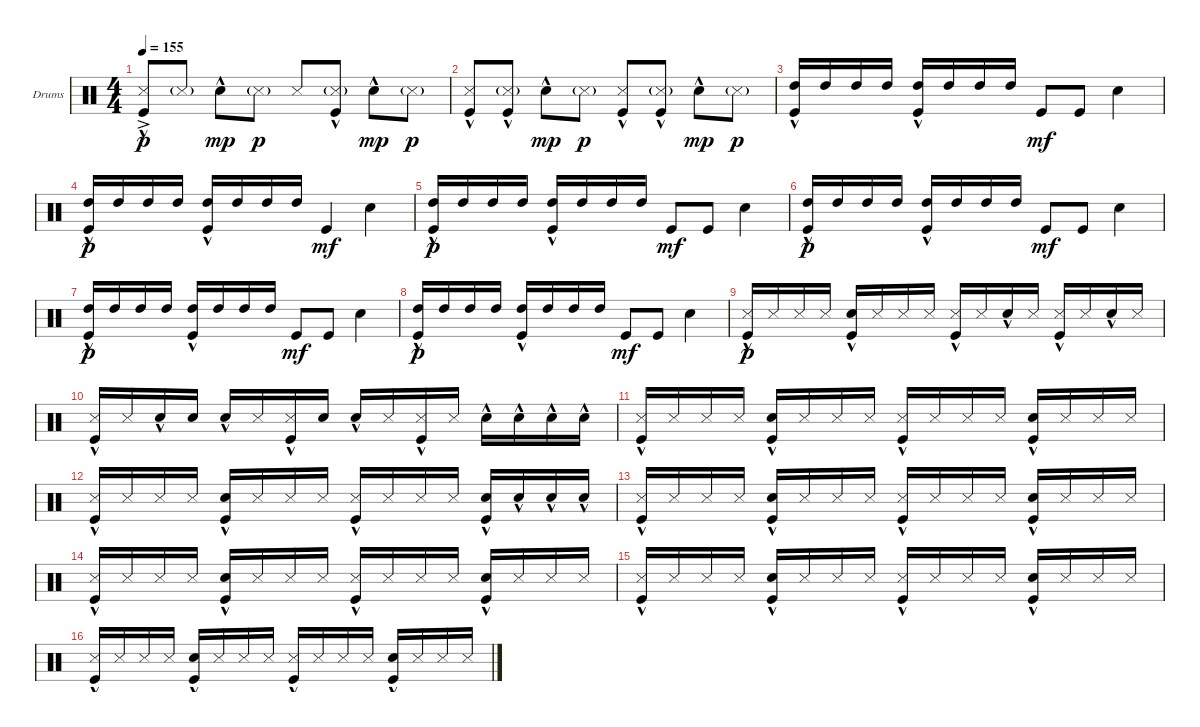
\defaultSystemsLayout 4
\bracketExtendMode groupsimilarinstruments
\firstSystemTrackNameOrientation horizontal
\otherSystemsTrackNameOrientation horizontal
\track ("Drumkit" "Drums") {instrument percussion}
\staff {score}
\articulation defaults
\ts (4 4)
\tempo 155
\clef neutral
\ks c
("Snare (side stick) 3"{ac} "Kick (hit)"{hac}).8{dy p} "Snare (side stick) 3"{g}.8 "Snare (hit) 2"{hac}.8{dy mp} "Snare (side stick) 3"{g}.8{dy p} "Snare (side stick) 3".8 ("Snare (side stick) 3"{g} "Kick (hit)"{hac}).8 "Snare (hit) 2"{hac}.8{dy mp} "Snare (side stick) 3"{g}.8{dy p} |
("Kick (hit)"{hac} "Snare (side stick) 3").8 ("Kick (hit)"{hac} "Snare (side stick) 3"{g}).8 "Snare (hit) 2"{hac}.8{dy mp} "Snare (side stick) 3"{g}.8{dy p} ("Kick (hit)"{hac} "Snare (side stick) 3").8 ("Kick (hit)"{hac} "Snare (side stick) 3"{g}).8 "Snare (hit) 2"{hac}.8{dy mp} "Snare (side stick) 3"{g}.8{dy p} |
("High Tom (hit)" "Kick (hit)"{hac}).16 "High Tom (hit)".16 "High Tom (hit)".16 "High Tom (hit)".16 ("High Tom (hit)" "Kick (hit)"{hac}).16 "High Tom (hit)".16 "High Tom (hit)".16 "High Tom (hit)".16 "Kick (hit)".8{dy mf} "Kick (hit)".8 "Snare (hit) 2".4 |
("High Tom (hit)" "Kick (hit)"{hac}).16{dy p} "High Tom (hit)".16 "High Tom (hit)".16 "High Tom (hit)".16 ("High Tom (hit)" "Kick (hit)"{hac}).16 "High Tom (hit)".16 "High Tom (hit)".16 "High Tom (hit)".16 "Kick (hit)".4{dy mf} "Snare (hit) 2".4 |
("High Tom (hit)" "Kick (hit)"{hac}).16{dy p} "High Tom (hit)".16 "High Tom (hit)".16 "High Tom (hit)".16 ("High Tom (hit)" "Kick (hit)"{hac}).16 "High Tom (hit)".16 "High Tom (hit)".16 "High Tom (hit)".16 "Kick (hit)".8{dy mf} "Kick (hit)".8 "Snare (hit) 2".4 |
("High Tom (hit)" "Kick (hit)"{hac}).16{dy p} "High Tom (hit)".16 "High Tom (hit)".16 "High Tom (hit)".16 ("High Tom (hit)" "Kick (hit)"{hac}).16 "High Tom (hit)".16 "High Tom (hit)".16 "High Tom (hit)".16 "Kick (hit)".8{dy mf} "Kick (hit)".8 "Snare (hit) 2".4 |
("High Tom (hit)" "Kick (hit)"{hac}).16{dy p} "High Tom (hit)".16 "High Tom (hit)".16 "High Tom (hit)".16 ("High Tom (hit)" "Kick (hit)"{hac}).16 "High Tom (hit)".16 "High Tom (hit)".16 "High Tom (hit)".16 "Kick (hit)".8{dy mf} "Kick (hit)".8 "Snare (hit) 2".4 |
("High Tom (hit)" "Kick (hit)"{hac}).16{dy p} "High Tom (hit)".16 "High Tom (hit)".16 "High Tom (hit)".16 ("High Tom (hit)" "Kick (hit)"{hac}).16 "High Tom (hit)".16 "High Tom (hit)".16 "High Tom (hit)".16 "Kick (hit)".8{dy mf} "Kick (hit)".8 "Snare (hit) 2".4 |
("Snare (side stick) 3" "Kick (hit)"{hac}).16{dy p} "Snare (side stick) 3".16 "Snare (side stick) 3".16 "Snare (side stick) 3".16 ("Snare (hit) 2"{hac} "Kick (hit)"{hac}).16 "Snare (side stick) 3".16 "Snare (side stick) 3".16 "Snare (side stick) 3".16 ("Snare (side stick) 3" "Kick (hit)"{hac}).16 "Snare (side stick) 3".16 "Snare (hit) 2"{hac}.16 "Snare (side stick) 3".16 ("Snare (side stick) 3" "Kick (hit)"{hac}).16 "Snare (side stick) 3".16 "Snare (hit) 2"{hac}.16 "Snare (side stick) 3".16 |
("Snare (side stick) 3" "Kick (hit)"{hac}).16 "Snare (side stick) 3".16 "Snare (hit) 2"{hac}.16 "Snare (hit) 2".16 "Snare (hit) 2"{hac}.16 "Snare (side stick) 3".16 ("Snare (side stick) 3" "Kick (hit)"{hac}).16 "Snare (hit) 2".16 "Snare (hit) 2"{hac}.16 "Snare (side stick) 3".16 ("Kick (hit)"{hac} "Snare (side stick) 3").16 "Snare (side stick) 3".16 "Snare (hit) 2"{hac}.16 "Snare (hit) 2"{hac}.16 "Snare (hit) 2"{hac}.16 "Snare (hit) 2"{hac}.16 |
("Snare (side stick) 3" "Kick (hit)"{hac}).16 "Snare (side stick) 3".16 "Snare (side stick) 3".16 "Snare (side stick) 3".16 ("Snare (hit) 2"{hac} "Kick (hit)"{hac}).16 "Snare (side stick) 3".16 "Snare (side stick) 3".16 "Snare (side stick) 3".16 ("Snare (side stick) 3" "Kick (hit)"{hac}).16 "Snare (side stick) 3".16 "Snare (side stick) 3".16 "Snare (side stick) 3".16 ("Snare (hit) 2"{hac} "Kick (hit)"{hac}).16 "Snare (side stick) 3".16 "Snare (side stick) 3".16 "Snare (side stick) 3".16 |
("Snare (side stick) 3" "Kick (hit)"{hac}).16 "Snare (side stick) 3".16 "Snare (side stick) 3".16 "Snare (side stick) 3".16 ("Snare (hit) 2"{hac} "Kick (hit)"{hac}).16 "Snare (side stick) 3".16 "Snare (side stick) 3".16 "Snare (side stick) 3".16 ("Snare (side stick) 3" "Kick (hit)"{hac}).16 "Snare (side stick) 3".16 "Snare (side stick) 3".16 "Snare (side stick) 3".16 ("Snare (hit) 2"{hac} "Kick (hit)"{hac}).16 "Snare (hit) 2"{hac}.16 "Snare (hit) 2"{hac}.16 "Snare (hit) 2"{hac}.16 |
("Snare (side stick) 3" "Kick (hit)"{hac}).16 "Snare (side stick) 3".16 "Snare (side stick) 3".16 "Snare (side stick) 3".16 ("Snare (hit) 2"{hac} "Kick (hit)"{hac}).16 "Snare (side stick) 3".16 "Snare (side stick) 3".16 "Snare (side stick) 3".16 ("Snare (side stick) 3" "Kick (hit)"{hac}).16 "Snare (side stick) 3".16 "Snare (side stick) 3".16 "Snare (side stick) 3".16 ("Snare (hit) 2"{hac} "Kick (hit)"{hac}).16 "Snare (side stick) 3".16 "Snare (side stick) 3".16 "Snare (side stick) 3".16 |
("Snare (side stick) 3" "Kick (hit)"{hac}).16 "Snare (side stick) 3".16 "Snare (side stick) 3".16 "Snare (side stick) 3".16 ("Snare (hit) 2"{hac} "Kick (hit)"{hac}).16 "Snare (side stick) 3".16 "Snare (side stick) 3".16 "Snare (side stick) 3".16 ("Snare (side stick) 3" "Kick (hit)"{hac}).16 "Snare (side stick) 3".16 "Snare (side stick) 3".16 "Snare (side stick) 3".16 ("Snare (hit) 2"{hac} "Kick (hit)"{hac}).16 "Snare (side stick) 3".16 "Snare (side stick) 3".16 "Snare (side stick) 3".16 |
("Snare (side stick) 3" "Kick (hit)"{hac}).16 "Snare (side stick) 3".16 "Snare (side stick) 3".16 "Snare (side stick) 3".16 ("Snare (hit) 2"{hac} "Kick (hit)"{hac}).16 "Snare (side stick) 3".16 "Snare (side stick) 3".16 "Snare (side stick) 3".16 ("Snare (side stick) 3" "Kick (hit)"{hac}).16 "Snare (side stick) 3".16 "Snare (side stick) 3".16 "Snare (side stick) 3".16 ("Snare (hit) 2"{hac} "Kick (hit)"{hac}).16 "Snare (side stick) 3".16 "Snare (side stick) 3".16 "Snare (side stick) 3".16 |
("Snare (side stick) 3" "Kick (hit)"{hac}).16 "Snare (side stick) 3".16 "Snare (side stick) 3".16 "Snare (side stick) 3".16 ("Snare (hit) 2"{hac} "Kick (hit)"{hac}).16 "Snare (side stick) 3".16 "Snare (side stick) 3".16 "Snare (side stick) 3".16 ("Snare (side stick) 3" "Kick (hit)"{hac}).16 "Snare (side stick) 3".16 "Snare (side stick) 3".16 "Snare (side stick) 3".16 ("Snare (hit) 2"{hac} "Kick (hit)"{hac}).16 "Snare (side stick) 3".16 "Snare (side stick) 3".16 "Snare (side stick) 3".16
